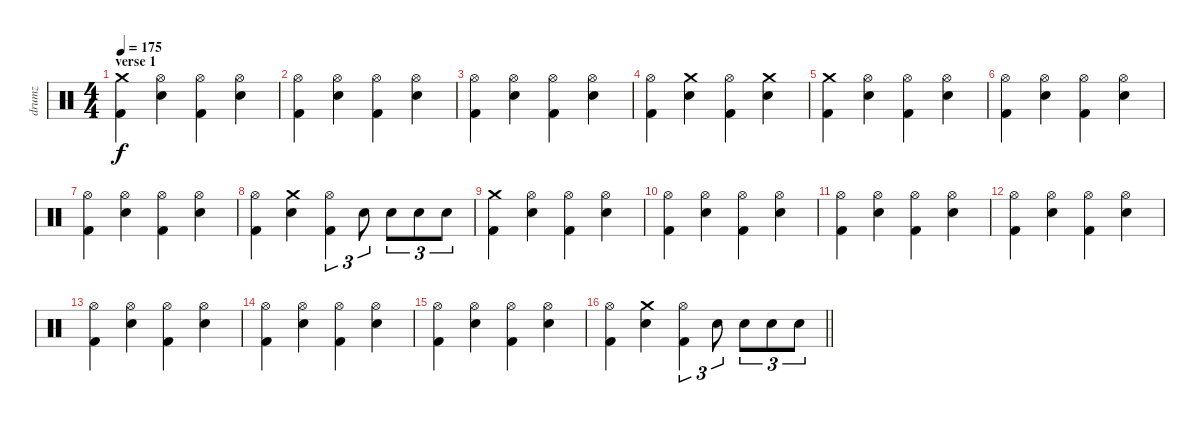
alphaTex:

\track ("drumz" "drumz") {instrument percussion}
\staff {score}
\articulation defaults
\ts (4 4)
\section ("" "verse 1")
\tempo 175
\clef neutral
\ks c
("Crash medium (hit)" "Kick (hit) 2").4{dy f} ("Hi-Hat (open)" "Electric Snare (hit)").4 ("Hi-Hat (open)" "Kick (hit) 2").4 ("Hi-Hat (open)" "Electric Snare (hit)").4 |
("Hi-Hat (open)" "Kick (hit) 2").4 ("Hi-Hat (open)" "Electric Snare (hit)").4 ("Hi-Hat (open)" "Kick (hit) 2").4 ("Hi-Hat (open)" "Electric Snare (hit)").4 |
("Hi-Hat (open)" "Kick (hit) 2").4 ("Hi-Hat (open)" "Electric Snare (hit)").4 ("Hi-Hat (open)" "Kick (hit) 2").4 ("Hi-Hat (open)" "Electric Snare (hit)").4 |
("Hi-Hat (open)" "Kick (hit) 2").4 ("Crash medium (hit)" "Electric Snare (hit)").4 ("Hi-Hat (open)" "Kick (hit) 2").4 ("Crash medium (hit)" "Electric Snare (hit)").4 |
("Crash medium (hit)" "Kick (hit) 2").4 ("Hi-Hat (open)" "Electric Snare (hit)").4 ("Hi-Hat (open)" "Kick (hit) 2").4 ("Hi-Hat (open)" "Electric Snare (hit)").4 |
("Hi-Hat (open)" "Kick (hit) 2").4 ("Hi-Hat (open)" "Electric Snare (hit)").4 ("Hi-Hat (open)" "Kick (hit) 2").4 ("Hi-Hat (open)" "Electric Snare (hit)").4 |
("Hi-Hat (open)" "Kick (hit) 2").4 ("Hi-Hat (open)" "Electric Snare (hit)").4 ("Hi-Hat (open)" "Kick (hit) 2").4 ("Hi-Hat (open)" "Electric Snare (hit)").4 |
("Hi-Hat (open)" "Kick (hit) 2").4 ("Crash medium (hit)" "Electric Snare (hit)").4 ("Hi-Hat (open)" "Kick (hit) 2").4{tu (3 2)} "Electric Snare (hit)".8{tu (3 2)} "Electric Snare (hit)".8{tu (3 2)} "Electric Snare (hit)".8{tu (3 2)} "Electric Snare (hit)".8{tu (3 2)} |
("Crash medium (hit)" "Kick (hit) 2").4 ("Hi-Hat (open)" "Electric Snare (hit)").4 ("Hi-Hat (open)" "Kick (hit) 2").4 ("Hi-Hat (open)" "Electric Snare (hit)").4 |
("Hi-Hat (open)" "Kick (hit) 2").4 ("Hi-Hat (open)" "Electric Snare (hit)").4 ("Hi-Hat (open)" "Kick (hit) 2").4 ("Hi-Hat (open)" "Electric Snare (hit)").4 |
("Hi-Hat (open)" "Kick (hit) 2").4 ("Hi-Hat (open)" "Electric Snare (hit)").4 ("Hi-Hat (open)" "Kick (hit) 2").4 ("Hi-Hat (open)" "Electric Snare (hit)").4 |
("Hi-Hat (open)" "Kick (hit) 2").4 ("Hi-Hat (open)" "Electric Snare (hit)").4 ("Hi-Hat (open)" "Kick (hit) 2").4 ("Hi-Hat (open)" "Electric Snare (hit)").4 |
("Hi-Hat (open)" "Kick (hit) 2").4 ("Hi-Hat (open)" "Electric Snare (hit)").4 ("Hi-Hat (open)" "Kick (hit) 2").4 ("Hi-Hat (open)" "Electric Snare (hit)").4 |
("Hi-Hat (open)" "Kick (hit) 2").4 ("Hi-Hat (open)" "Electric Snare (hit)").4 ("Hi-Hat (open)" "Kick (hit) 2").4 ("Hi-Hat (open)" "Electric Snare (hit)").4 |
("Hi-Hat (open)" "Kick (hit) 2").4 ("Hi-Hat (open)" "Electric Snare (hit)").4 ("Hi-Hat (open)" "Kick (hit) 2").4 ("Hi-Hat (open)" "Electric Snare (hit)").4 |
\barLineRight lightlight
("Hi-Hat (open)" "Kick (hit) 2").4 ("Crash medium (hit)" "Electric Snare (hit)").4 ("Hi-Hat (open)" "Kick (hit) 2").4{tu (3 2)} "Electric Snare (hit)".8{tu (3 2)} "Electric Snare (hit)".8{tu (3 2)} "Electric Snare (hit)".8{tu (3 2)} "Electric Snare (hit)".8{tu (3 2)}
